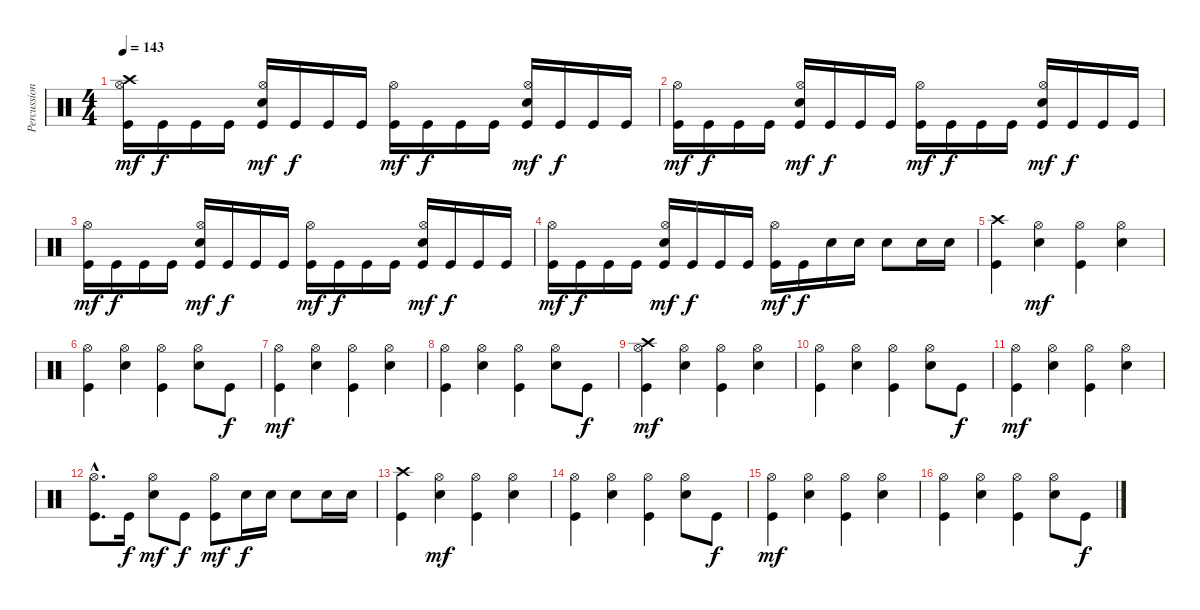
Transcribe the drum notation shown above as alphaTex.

\track ("Percussions" "Percussion") {instrument percussion}
\staff {score}
\articulation defaults
\ts (4 4)
\tempo 143
\clef neutral
\ks c
("Kick (hit)" "Hi-Hat (open)" "Crash high (hit)").16{dy mf} "Kick (hit)".16{dy f} "Kick (hit)".16 "Kick (hit)".16 ("Kick (hit)" "Electric Snare (hit)" "Hi-Hat (open)").16{dy mf} "Kick (hit)".16{dy f} "Kick (hit)".16 "Kick (hit)".16 ("Kick (hit)" "Hi-Hat (open)").16{dy mf} "Kick (hit)".16{dy f} "Kick (hit)".16 "Kick (hit)".16 ("Kick (hit)" "Electric Snare (hit)" "Hi-Hat (open)").16{dy mf} "Kick (hit)".16{dy f} "Kick (hit)".16 "Kick (hit)".16 |
("Kick (hit)" "Hi-Hat (open)").16{dy mf} "Kick (hit)".16{dy f} "Kick (hit)".16 "Kick (hit)".16 ("Kick (hit)" "Electric Snare (hit)" "Hi-Hat (open)").16{dy mf} "Kick (hit)".16{dy f} "Kick (hit)".16 "Kick (hit)".16 ("Kick (hit)" "Hi-Hat (open)").16{dy mf} "Kick (hit)".16{dy f} "Kick (hit)".16 "Kick (hit)".16 ("Kick (hit)" "Electric Snare (hit)" "Hi-Hat (open)").16{dy mf} "Kick (hit)".16{dy f} "Kick (hit)".16 "Kick (hit)".16 |
("Kick (hit)" "Hi-Hat (open)").16{dy mf} "Kick (hit)".16{dy f} "Kick (hit)".16 "Kick (hit)".16 ("Kick (hit)" "Electric Snare (hit)" "Hi-Hat (open)").16{dy mf} "Kick (hit)".16{dy f} "Kick (hit)".16 "Kick (hit)".16 ("Kick (hit)" "Hi-Hat (open)").16{dy mf} "Kick (hit)".16{dy f} "Kick (hit)".16 "Kick (hit)".16 ("Kick (hit)" "Electric Snare (hit)" "Hi-Hat (open)").16{dy mf} "Kick (hit)".16{dy f} "Kick (hit)".16 "Kick (hit)".16 |
("Kick (hit)" "Hi-Hat (open)").16{dy mf} "Kick (hit)".16{dy f} "Kick (hit)".16 "Kick (hit)".16 ("Kick (hit)" "Electric Snare (hit)" "Hi-Hat (open)").16{dy mf} "Kick (hit)".16{dy f} "Kick (hit)".16 "Kick (hit)".16 ("Kick (hit)" "Hi-Hat (open)").16{dy mf} "Kick (hit)".16{dy f} "Electric Snare (hit)".16 "Electric Snare (hit)".16 "Electric Snare (hit)".8 "Electric Snare (hit)".16 "Electric Snare (hit)".16 |
("Kick (hit)" "Crash high (hit)").4 ("Electric Snare (hit)" "Hi-Hat (open)").4{dy mf} ("Kick (hit)" "Hi-Hat (open)").4 ("Electric Snare (hit)" "Hi-Hat (open)").4 |
("Kick (hit)" "Hi-Hat (open)").4 ("Electric Snare (hit)" "Hi-Hat (open)").4 ("Kick (hit)" "Hi-Hat (open)").4 ("Electric Snare (hit)" "Hi-Hat (open)").8 "Kick (hit)".8{dy f} |
("Kick (hit)" "Hi-Hat (open)").4{dy mf} ("Electric Snare (hit)" "Hi-Hat (open)").4 ("Kick (hit)" "Hi-Hat (open)").4 ("Electric Snare (hit)" "Hi-Hat (open)").4 |
("Kick (hit)" "Hi-Hat (open)").4 ("Electric Snare (hit)" "Hi-Hat (open)").4 ("Kick (hit)" "Hi-Hat (open)").4 ("Electric Snare (hit)" "Hi-Hat (open)").8 "Kick (hit)".8{dy f} |
("Kick (hit)" "Hi-Hat (open)" "Crash high (hit)").4{dy mf} ("Electric Snare (hit)" "Hi-Hat (open)").4 ("Kick (hit)" "Hi-Hat (open)").4 ("Electric Snare (hit)" "Hi-Hat (open)").4 |
("Kick (hit)" "Hi-Hat (open)").4 ("Electric Snare (hit)" "Hi-Hat (open)").4 ("Kick (hit)" "Hi-Hat (open)").4 ("Electric Snare (hit)" "Hi-Hat (open)").8 "Kick (hit)".8{dy f} |
("Kick (hit)" "Hi-Hat (open)").4{dy mf} ("Electric Snare (hit)" "Hi-Hat (open)").4 ("Kick (hit)" "Hi-Hat (open)").4 ("Electric Snare (hit)" "Hi-Hat (open)").4 |
("Kick (hit)"{hac} "Hi-Hat (open)"{hac}).8{d} "Kick (hit)".16{dy f} ("Electric Snare (hit)" "Hi-Hat (open)").8{dy mf} "Kick (hit)".8{dy f} ("Kick (hit)" "Hi-Hat (open)").8{dy mf} "Electric Snare (hit)".16{dy f} "Electric Snare (hit)".16 "Electric Snare (hit)".8 "Electric Snare (hit)".16 "Electric Snare (hit)".16 |
("Kick (hit)" "Crash high (hit)").4 ("Electric Snare (hit)" "Hi-Hat (open)").4{dy mf} ("Kick (hit)" "Hi-Hat (open)").4 ("Electric Snare (hit)" "Hi-Hat (open)").4 |
("Kick (hit)" "Hi-Hat (open)").4 ("Electric Snare (hit)" "Hi-Hat (open)").4 ("Kick (hit)" "Hi-Hat (open)").4 ("Electric Snare (hit)" "Hi-Hat (open)").8 "Kick (hit)".8{dy f} |
("Kick (hit)" "Hi-Hat (open)").4{dy mf} ("Electric Snare (hit)" "Hi-Hat (open)").4 ("Kick (hit)" "Hi-Hat (open)").4 ("Electric Snare (hit)" "Hi-Hat (open)").4 |
("Kick (hit)" "Hi-Hat (open)").4 ("Electric Snare (hit)" "Hi-Hat (open)").4 ("Kick (hit)" "Hi-Hat (open)").4 ("Electric Snare (hit)" "Hi-Hat (open)").8 "Kick (hit)".8{dy f}
